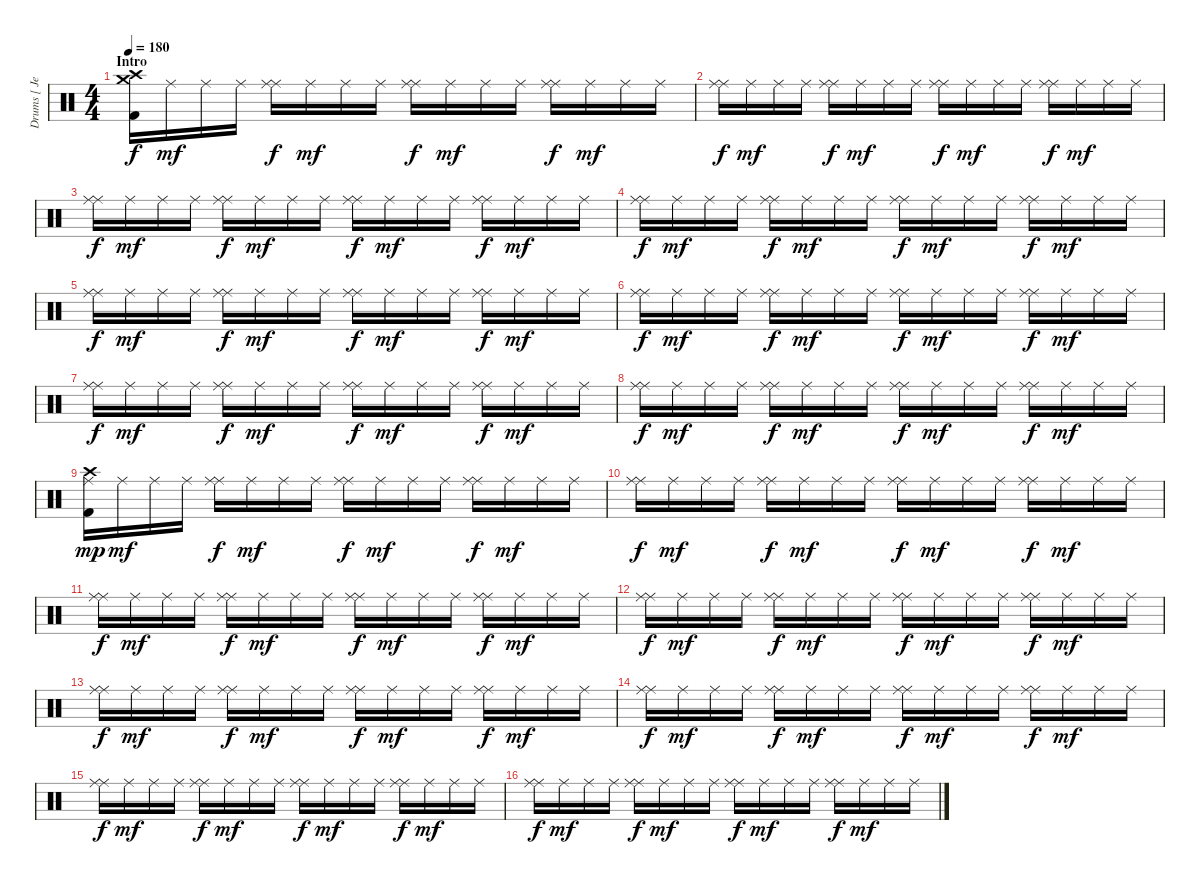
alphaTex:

\track ("Drums [ Jesse Ingelevics ]" "Drums [ Je") {instrument percussion}
\staff {score}
\articulation defaults
\ts (4 4)
\section ("" "Intro")
\tempo 180
\clef neutral
\ks c
("Crash high (hit)" "Crash medium (hit)" "Kick (hit) 2").16{dy f} "Ride (middle)".16{dy mf} "Ride (middle)".16 "Ride (middle)".16 ("Ride (middle)" "Ride (middle)").16{dy f} "Ride (middle)".16{dy mf} "Ride (middle)".16 "Ride (middle)".16 ("Ride (middle)" "Ride (middle)").16{dy f} "Ride (middle)".16{dy mf} "Ride (middle)".16 "Ride (middle)".16 ("Ride (middle)" "Ride (middle)").16{dy f} "Ride (middle)".16{dy mf} "Ride (middle)".16 "Ride (middle)".16 |
("Ride (middle)" "Ride (middle)").16{dy f} "Ride (middle)".16{dy mf} "Ride (middle)".16 "Ride (middle)".16 ("Ride (middle)" "Ride (middle)").16{dy f} "Ride (middle)".16{dy mf} "Ride (middle)".16 "Ride (middle)".16 ("Ride (middle)" "Ride (middle)").16{dy f} "Ride (middle)".16{dy mf} "Ride (middle)".16 "Ride (middle)".16 ("Ride (middle)" "Ride (middle)").16{dy f} "Ride (middle)".16{dy mf} "Ride (middle)".16 "Ride (middle)".16 |
("Ride (middle)" "Ride (middle)").16{dy f} "Ride (middle)".16{dy mf} "Ride (middle)".16 "Ride (middle)".16 ("Ride (middle)" "Ride (middle)").16{dy f} "Ride (middle)".16{dy mf} "Ride (middle)".16 "Ride (middle)".16 ("Ride (middle)" "Ride (middle)").16{dy f} "Ride (middle)".16{dy mf} "Ride (middle)".16 "Ride (middle)".16 ("Ride (middle)" "Ride (middle)").16{dy f} "Ride (middle)".16{dy mf} "Ride (middle)".16 "Ride (middle)".16 |
("Ride (middle)" "Ride (middle)").16{dy f} "Ride (middle)".16{dy mf} "Ride (middle)".16 "Ride (middle)".16 ("Ride (middle)" "Ride (middle)").16{dy f} "Ride (middle)".16{dy mf} "Ride (middle)".16 "Ride (middle)".16 ("Ride (middle)" "Ride (middle)").16{dy f} "Ride (middle)".16{dy mf} "Ride (middle)".16 "Ride (middle)".16 ("Ride (middle)" "Ride (middle)").16{dy f} "Ride (middle)".16{dy mf} "Ride (middle)".16 "Ride (middle)".16 |
("Ride (middle)" "Ride (middle)").16{dy f} "Ride (middle)".16{dy mf} "Ride (middle)".16 "Ride (middle)".16 ("Ride (middle)" "Ride (middle)").16{dy f} "Ride (middle)".16{dy mf} "Ride (middle)".16 "Ride (middle)".16 ("Ride (middle)" "Ride (middle)").16{dy f} "Ride (middle)".16{dy mf} "Ride (middle)".16 "Ride (middle)".16 ("Ride (middle)" "Ride (middle)").16{dy f} "Ride (middle)".16{dy mf} "Ride (middle)".16 "Ride (middle)".16 |
("Ride (middle)" "Ride (middle)").16{dy f} "Ride (middle)".16{dy mf} "Ride (middle)".16 "Ride (middle)".16 ("Ride (middle)" "Ride (middle)").16{dy f} "Ride (middle)".16{dy mf} "Ride (middle)".16 "Ride (middle)".16 ("Ride (middle)" "Ride (middle)").16{dy f} "Ride (middle)".16{dy mf} "Ride (middle)".16 "Ride (middle)".16 ("Ride (middle)" "Ride (middle)").16{dy f} "Ride (middle)".16{dy mf} "Ride (middle)".16 "Ride (middle)".16 |
("Ride (middle)" "Ride (middle)").16{dy f} "Ride (middle)".16{dy mf} "Ride (middle)".16 "Ride (middle)".16 ("Ride (middle)" "Ride (middle)").16{dy f} "Ride (middle)".16{dy mf} "Ride (middle)".16 "Ride (middle)".16 ("Ride (middle)" "Ride (middle)").16{dy f} "Ride (middle)".16{dy mf} "Ride (middle)".16 "Ride (middle)".16 ("Ride (middle)" "Ride (middle)").16{dy f} "Ride (middle)".16{dy mf} "Ride (middle)".16 "Ride (middle)".16 |
("Ride (middle)" "Ride (middle)").16{dy f} "Ride (middle)".16{dy mf} "Ride (middle)".16 "Ride (middle)".16 ("Ride (middle)" "Ride (middle)").16{dy f} "Ride (middle)".16{dy mf} "Ride (middle)".16 "Ride (middle)".16 ("Ride (middle)" "Ride (middle)").16{dy f} "Ride (middle)".16{dy mf} "Ride (middle)".16 "Ride (middle)".16 ("Ride (middle)" "Ride (middle)").16{dy f} "Ride (middle)".16{dy mf} "Ride (middle)".16 "Ride (middle)".16 |
("Crash high (hit)" "Ride (middle)" "Kick (hit) 2").16{dy mp} "Ride (middle)".16{dy mf} "Ride (middle)".16 "Ride (middle)".16 ("Ride (middle)" "Ride (middle)").16{dy f} "Ride (middle)".16{dy mf} "Ride (middle)".16 "Ride (middle)".16 ("Ride (middle)" "Ride (middle)").16{dy f} "Ride (middle)".16{dy mf} "Ride (middle)".16 "Ride (middle)".16 ("Ride (middle)" "Ride (middle)").16{dy f} "Ride (middle)".16{dy mf} "Ride (middle)".16 "Ride (middle)".16 |
("Ride (middle)" "Ride (middle)").16{dy f} "Ride (middle)".16{dy mf} "Ride (middle)".16 "Ride (middle)".16 ("Ride (middle)" "Ride (middle)").16{dy f} "Ride (middle)".16{dy mf} "Ride (middle)".16 "Ride (middle)".16 ("Ride (middle)" "Ride (middle)").16{dy f} "Ride (middle)".16{dy mf} "Ride (middle)".16 "Ride (middle)".16 ("Ride (middle)" "Ride (middle)").16{dy f} "Ride (middle)".16{dy mf} "Ride (middle)".16 "Ride (middle)".16 |
("Ride (middle)" "Ride (middle)").16{dy f} "Ride (middle)".16{dy mf} "Ride (middle)".16 "Ride (middle)".16 ("Ride (middle)" "Ride (middle)").16{dy f} "Ride (middle)".16{dy mf} "Ride (middle)".16 "Ride (middle)".16 ("Ride (middle)" "Ride (middle)").16{dy f} "Ride (middle)".16{dy mf} "Ride (middle)".16 "Ride (middle)".16 ("Ride (middle)" "Ride (middle)").16{dy f} "Ride (middle)".16{dy mf} "Ride (middle)".16 "Ride (middle)".16 |
("Ride (middle)" "Ride (middle)").16{dy f} "Ride (middle)".16{dy mf} "Ride (middle)".16 "Ride (middle)".16 ("Ride (middle)" "Ride (middle)").16{dy f} "Ride (middle)".16{dy mf} "Ride (middle)".16 "Ride (middle)".16 ("Ride (middle)" "Ride (middle)").16{dy f} "Ride (middle)".16{dy mf} "Ride (middle)".16 "Ride (middle)".16 ("Ride (middle)" "Ride (middle)").16{dy f} "Ride (middle)".16{dy mf} "Ride (middle)".16 "Ride (middle)".16 |
("Ride (middle)" "Ride (middle)").16{dy f} "Ride (middle)".16{dy mf} "Ride (middle)".16 "Ride (middle)".16 ("Ride (middle)" "Ride (middle)").16{dy f} "Ride (middle)".16{dy mf} "Ride (middle)".16 "Ride (middle)".16 ("Ride (middle)" "Ride (middle)").16{dy f} "Ride (middle)".16{dy mf} "Ride (middle)".16 "Ride (middle)".16 ("Ride (middle)" "Ride (middle)").16{dy f} "Ride (middle)".16{dy mf} "Ride (middle)".16 "Ride (middle)".16 |
("Ride (middle)" "Ride (middle)").16{dy f} "Ride (middle)".16{dy mf} "Ride (middle)".16 "Ride (middle)".16 ("Ride (middle)" "Ride (middle)").16{dy f} "Ride (middle)".16{dy mf} "Ride (middle)".16 "Ride (middle)".16 ("Ride (middle)" "Ride (middle)").16{dy f} "Ride (middle)".16{dy mf} "Ride (middle)".16 "Ride (middle)".16 ("Ride (middle)" "Ride (middle)").16{dy f} "Ride (middle)".16{dy mf} "Ride (middle)".16 "Ride (middle)".16 |
("Ride (middle)" "Ride (middle)").16{dy f} "Ride (middle)".16{dy mf} "Ride (middle)".16 "Ride (middle)".16 ("Ride (middle)" "Ride (middle)").16{dy f} "Ride (middle)".16{dy mf} "Ride (middle)".16 "Ride (middle)".16 ("Ride (middle)" "Ride (middle)").16{dy f} "Ride (middle)".16{dy mf} "Ride (middle)".16 "Ride (middle)".16 ("Ride (middle)" "Ride (middle)").16{dy f} "Ride (middle)".16{dy mf} "Ride (middle)".16 "Ride (middle)".16 |
("Ride (middle)" "Ride (middle)").16{dy f} "Ride (middle)".16{dy mf} "Ride (middle)".16 "Ride (middle)".16 ("Ride (middle)" "Ride (middle)").16{dy f} "Ride (middle)".16{dy mf} "Ride (middle)".16 "Ride (middle)".16 ("Ride (middle)" "Ride (middle)").16{dy f} "Ride (middle)".16{dy mf} "Ride (middle)".16 "Ride (middle)".16 ("Ride (middle)" "Ride (middle)").16{dy f} "Ride (middle)".16{dy mf} "Ride (middle)".16 "Ride (middle)".16
